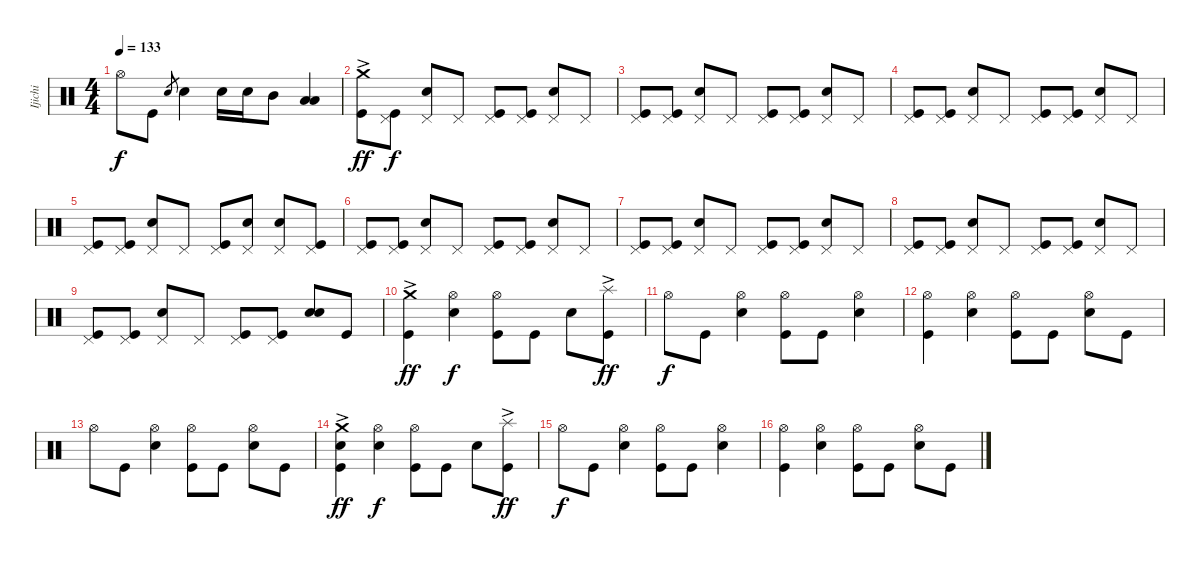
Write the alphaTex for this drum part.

\track ("Ijichi" "Ijichi") {instrument percussion}
\staff {score}
\articulation defaults
\ts (4 4)
\tempo 133
\clef neutral
\ks c "Hi-Hat (open)".8{dy f} "Kick (hit)".8 "Electric Snare (hit)".8{gr} "Electric Snare (hit)".4 "Electric Snare (hit)".16 "Electric Snare (hit)".16 "Mid Tom (hit)".8
("Low Tom (hit)" "Low Tom (hit)").4 |
("Crash medium (hit)"{ac} "Kick (hit)").8{dy ff} ("Pedal Hi-Hat (hit)" "Kick (hit)").8{dy f} ("Pedal Hi-Hat (hit)" "Electric Snare (hit)").8 "Pedal Hi-Hat (hit)".8 ("Pedal Hi-Hat (hit)" "Kick (hit)").8 ("Pedal Hi-Hat (hit)" "Kick (hit)").8 ("Pedal Hi-Hat (hit)" "Electric Snare (hit)").8 "Pedal Hi-Hat (hit)".8 |
("Pedal Hi-Hat (hit)" "Kick (hit)").8 ("Pedal Hi-Hat (hit)" "Kick (hit)").8 ("Pedal Hi-Hat (hit)" "Electric Snare (hit)").8 "Pedal Hi-Hat (hit)".8 ("Pedal Hi-Hat (hit)" "Kick (hit)").8 ("Pedal Hi-Hat (hit)" "Kick (hit)").8 ("Pedal Hi-Hat (hit)" "Electric Snare (hit)").8 "Pedal Hi-Hat (hit)".8 |
("Pedal Hi-Hat (hit)" "Kick (hit)").8 ("Pedal Hi-Hat (hit)" "Kick (hit)").8 ("Pedal Hi-Hat (hit)" "Electric Snare (hit)").8 "Pedal Hi-Hat (hit)".8 ("Pedal Hi-Hat (hit)" "Kick (hit)").8 ("Pedal Hi-Hat (hit)" "Kick (hit)").8 ("Pedal Hi-Hat (hit)" "Electric Snare (hit)").8 "Pedal Hi-Hat (hit)".8 |
("Pedal Hi-Hat (hit)" "Kick (hit)").8 ("Pedal Hi-Hat (hit)" "Kick (hit)").8 ("Pedal Hi-Hat (hit)" "Electric Snare (hit)").8 "Pedal Hi-Hat (hit)".8 ("Pedal Hi-Hat (hit)" "Kick (hit)").8 ("Pedal Hi-Hat (hit)" "Electric Snare (hit)").8 ("Pedal Hi-Hat (hit)" "Electric Snare (hit)").8 ("Pedal Hi-Hat (hit)" "Kick (hit)").8 |
("Pedal Hi-Hat (hit)" "Kick (hit)").8 ("Pedal Hi-Hat (hit)" "Kick (hit)").8 ("Pedal Hi-Hat (hit)" "Electric Snare (hit)").8 "Pedal Hi-Hat (hit)".8 ("Pedal Hi-Hat (hit)" "Kick (hit)").8 ("Pedal Hi-Hat (hit)" "Kick (hit)").8 ("Pedal Hi-Hat (hit)" "Electric Snare (hit)").8 "Pedal Hi-Hat (hit)".8 |
("Pedal Hi-Hat (hit)" "Kick (hit)").8 ("Pedal Hi-Hat (hit)" "Kick (hit)").8 ("Pedal Hi-Hat (hit)" "Electric Snare (hit)").8 "Pedal Hi-Hat (hit)".8 ("Pedal Hi-Hat (hit)" "Kick (hit)").8 ("Pedal Hi-Hat (hit)" "Kick (hit)").8 ("Pedal Hi-Hat (hit)" "Electric Snare (hit)").8 "Pedal Hi-Hat (hit)".8 |
("Pedal Hi-Hat (hit)" "Kick (hit)").8 ("Pedal Hi-Hat (hit)" "Kick (hit)").8 ("Pedal Hi-Hat (hit)" "Electric Snare (hit)").8 "Pedal Hi-Hat (hit)".8 ("Pedal Hi-Hat (hit)" "Kick (hit)").8 ("Pedal Hi-Hat (hit)" "Kick (hit)").8 ("Pedal Hi-Hat (hit)" "Electric Snare (hit)").8 "Pedal Hi-Hat (hit)".8 |
("Pedal Hi-Hat (hit)" "Kick (hit)").8 ("Pedal Hi-Hat (hit)" "Kick (hit)").8 ("Pedal Hi-Hat (hit)" "Electric Snare (hit)").8 "Pedal Hi-Hat (hit)".8 ("Pedal Hi-Hat (hit)" "Kick (hit)").8 ("Pedal Hi-Hat (hit)" "Kick (hit)").8 ("Electric Snare (hit)" "Electric Snare (hit)").8 "Kick (hit)".8 |
("Crash medium (hit)"{ac} "Kick (hit)").4{dy ff} ("Hi-Hat (open)" "Electric Snare (hit)").4{dy f} ("Hi-Hat (open)" "Kick (hit)").8 "Kick (hit)".8 "Electric Snare (hit)".8 ("Splash (hit)"{ac} "Kick (hit)").8{dy ff} |
"Hi-Hat (open)".8{dy f} "Kick (hit)".8 ("Hi-Hat (open)" "Electric Snare (hit)").4 ("Hi-Hat (open)" "Kick (hit)").8 "Kick (hit)".8 ("Hi-Hat (open)" "Electric Snare (hit)").4 |
("Hi-Hat (open)" "Kick (hit)").4 ("Hi-Hat (open)" "Electric Snare (hit)").4 ("Hi-Hat (open)" "Kick (hit)").8 "Kick (hit)".8 ("Hi-Hat (open)" "Electric Snare (hit)").8 "Kick (hit)".8 |
"Hi-Hat (open)".8 "Kick (hit)".8 ("Hi-Hat (open)" "Electric Snare (hit)").4 ("Hi-Hat (open)" "Kick (hit)").8 "Kick (hit)".8 ("Hi-Hat (open)" "Electric Snare (hit)").8 "Kick (hit)".8 |
("Crash medium (hit)"{ac} "Electric Snare (hit)" "Kick (hit)").4{dy ff} ("Hi-Hat (open)" "Electric Snare (hit)").4{dy f} ("Hi-Hat (open)" "Kick (hit)").8 "Kick (hit)".8 "Electric Snare (hit)".8 ("Splash (hit)"{ac} "Kick (hit)").8{dy ff} |
"Hi-Hat (open)".8{dy f} "Kick (hit)".8 ("Hi-Hat (open)" "Electric Snare (hit)").4 ("Hi-Hat (open)" "Kick (hit)").8 "Kick (hit)".8 ("Hi-Hat (open)" "Electric Snare (hit)").4 |
("Hi-Hat (open)" "Kick (hit)").4 ("Hi-Hat (open)" "Electric Snare (hit)").4 ("Hi-Hat (open)" "Kick (hit)").8 "Kick (hit)".8 ("Hi-Hat (open)" "Electric Snare (hit)").8 "Kick (hit)".8
